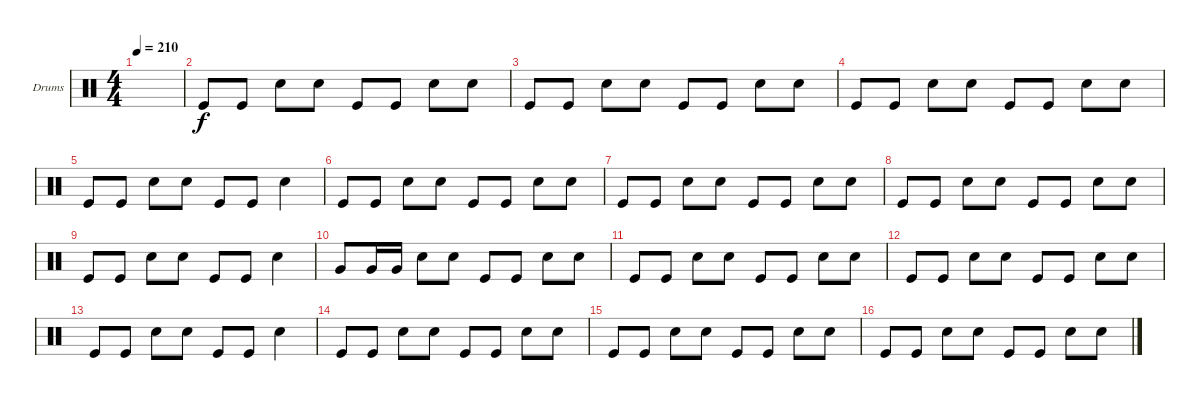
\defaultSystemsLayout 4
\bracketExtendMode groupsimilarinstruments
\firstSystemTrackNameOrientation horizontal
\otherSystemsTrackNameOrientation horizontal
\track ("Helders" "Drums") {instrument percussion}
\staff {score}
\articulation defaults
\ts (4 4)
\tempo 210
\clef neutral
\ks c
|
"Kick (hit)".8 "Kick (hit)".8 "Snare (hit) 2".8 "Snare (hit) 2".8 "Kick (hit)".8 "Kick (hit)".8 "Snare (hit) 2".8 "Snare (hit) 2".8 |
"Kick (hit)".8 "Kick (hit)".8 "Snare (hit) 2".8 "Snare (hit) 2".8 "Kick (hit)".8 "Kick (hit)".8 "Snare (hit) 2".8 "Snare (hit) 2".8 |
"Kick (hit)".8 "Kick (hit)".8 "Snare (hit) 2".8 "Snare (hit) 2".8 "Kick (hit)".8 "Kick (hit)".8 "Snare (hit) 2".8 "Snare (hit) 2".8 |
"Kick (hit)".8 "Kick (hit)".8 "Snare (hit) 2".8 "Snare (hit) 2".8 "Kick (hit)".8 "Kick (hit)".8 "Snare (hit) 2".4 |
"Kick (hit)".8 "Kick (hit)".8 "Snare (hit) 2".8 "Snare (hit) 2".8 "Kick (hit)".8 "Kick (hit)".8 "Snare (hit) 2".8 "Snare (hit) 2".8 |
"Kick (hit)".8 "Kick (hit)".8 "Snare (hit) 2".8 "Snare (hit) 2".8 "Kick (hit)".8 "Kick (hit)".8 "Snare (hit) 2".8 "Snare (hit) 2".8 |
"Kick (hit)".8 "Kick (hit)".8 "Snare (hit) 2".8 "Snare (hit) 2".8 "Kick (hit)".8 "Kick (hit)".8 "Snare (hit) 2".8 "Snare (hit) 2".8 |
"Kick (hit)".8 "Kick (hit)".8 "Snare (hit) 2".8 "Snare (hit) 2".8 "Kick (hit)".8 "Kick (hit)".8 "Snare (hit) 2".4 |
"Very Low Tom (hit)".8 "Very Low Tom (hit)".16 "Very Low Tom (hit)".16 "Snare (hit) 2".8 "Snare (hit) 2".8 "Kick (hit)".8 "Kick (hit)".8 "Snare (hit) 2".8 "Snare (hit) 2".8 |
"Kick (hit)".8 "Kick (hit)".8 "Snare (hit) 2".8 "Snare (hit) 2".8 "Kick (hit)".8 "Kick (hit)".8 "Snare (hit) 2".8 "Snare (hit) 2".8 |
"Kick (hit)".8 "Kick (hit)".8 "Snare (hit) 2".8 "Snare (hit) 2".8 "Kick (hit)".8 "Kick (hit)".8 "Snare (hit) 2".8 "Snare (hit) 2".8 |
"Kick (hit)".8 "Kick (hit)".8 "Snare (hit) 2".8 "Snare (hit) 2".8 "Kick (hit)".8 "Kick (hit)".8 "Snare (hit) 2".4 |
"Kick (hit)".8 "Kick (hit)".8 "Snare (hit) 2".8 "Snare (hit) 2".8 "Kick (hit)".8 "Kick (hit)".8 "Snare (hit) 2".8 "Snare (hit) 2".8 |
"Kick (hit)".8 "Kick (hit)".8 "Snare (hit) 2".8 "Snare (hit) 2".8 "Kick (hit)".8 "Kick (hit)".8 "Snare (hit) 2".8 "Snare (hit) 2".8 |
"Kick (hit)".8 "Kick (hit)".8 "Snare (hit) 2".8 "Snare (hit) 2".8 "Kick (hit)".8 "Kick (hit)".8 "Snare (hit) 2".8 "Snare (hit) 2".8
